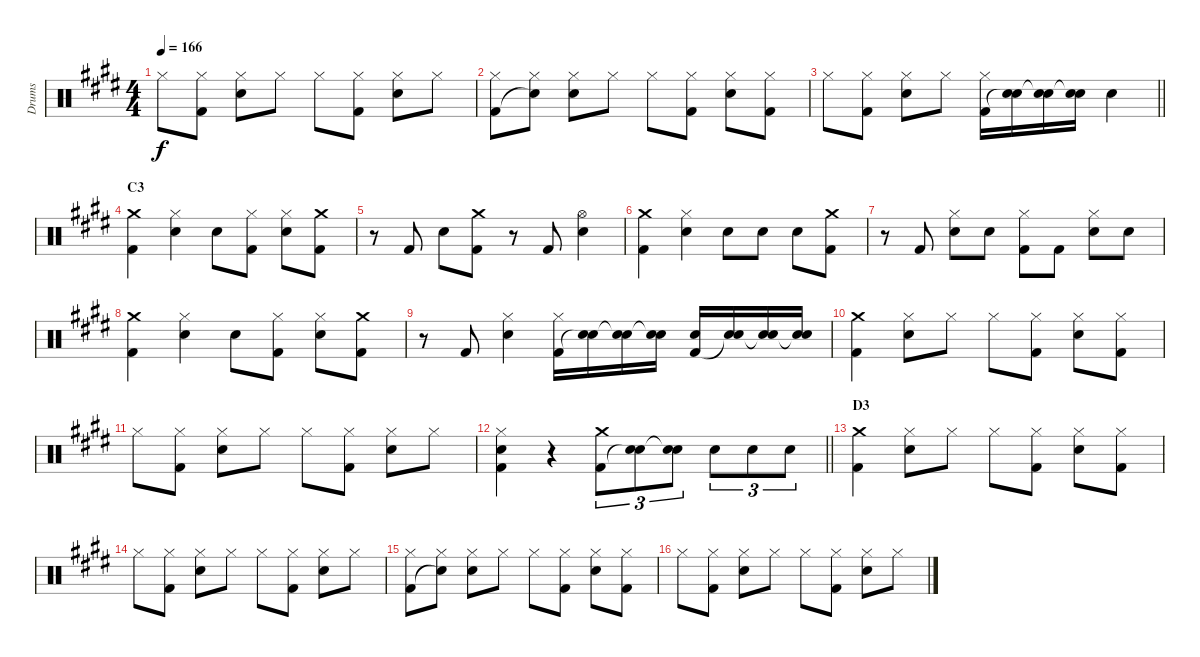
\track ("Drums" "Drums") {instrument percussion}
\staff {score}
\articulation defaults
\ts (4 4)
\tempo 166
\clef neutral
\ks e "Hi-Hat (closed)".8{dy f}
("Hi-Hat (closed)" "Kick (hit) 2").8 ("Hi-Hat (closed)" "Snare (hit) 2").8 "Hi-Hat (closed)".8 "Hi-Hat (closed)".8 ("Hi-Hat (closed)" "Kick (hit) 2").8 ("Hi-Hat (closed)" "Snare (hit) 2").8 "Hi-Hat (closed)".8 |
("Hi-Hat (closed)" "Kick (hit) 2").8 ("Hi-Hat (closed)" "Snare (hit)"{t}).8 ("Hi-Hat (closed)" "Snare (hit) 2").8 "Hi-Hat (closed)".8 "Hi-Hat (closed)".8 ("Hi-Hat (closed)" "Kick (hit) 2").8 ("Hi-Hat (closed)" "Snare (hit) 2").8 ("Hi-Hat (closed)" "Kick (hit) 2").8 |
\barLineRight lightlight "Hi-Hat (closed)".8
("Hi-Hat (closed)" "Kick (hit) 2").8 ("Hi-Hat (closed)" "Snare (hit) 2").8 "Hi-Hat (closed)".8 ("Hi-Hat (closed)" "Kick (hit) 2").16 ("Snare (hit) 2" "Snare (hit)"{t}).16 ("Snare (hit) 2" "Snare (hit)"{t}).16 ("Snare (hit) 2" "Snare (hit)"{t}).16 "Snare (hit) 2".4 |
\section ("" "C3")
("Crash medium (hit)" "Kick (hit) 2").4 ("Hi-Hat (closed)" "Snare (hit) 2").4 "Snare (hit) 2".8 ("Hi-Hat (closed)" "Kick (hit) 2").8 ("Hi-Hat (closed)" "Snare (hit) 2").8 ("Crash medium (hit)" "Kick (hit) 2").8 |
r.8 "Kick (hit) 2".8 "Snare (hit) 2".8 ("Crash medium (hit)" "Kick (hit) 2").8 r.8 "Kick (hit) 2".8 ("Hi-Hat (open)" "Snare (hit) 2").4 |
("Crash medium (hit)" "Kick (hit) 2").4 ("Hi-Hat (closed)" "Snare (hit) 2").4 "Snare (hit) 2".8 "Snare (hit) 2".8 "Snare (hit) 2".8 ("Crash medium (hit)" "Kick (hit) 2").8 |
r.8 "Kick (hit) 2".8 ("Hi-Hat (closed)" "Snare (hit) 2").8 "Snare (hit) 2".8 ("Hi-Hat (closed)" "Kick (hit) 2").8 "Kick (hit) 2".8 ("Hi-Hat (closed)" "Snare (hit) 2").8 "Snare (hit) 2".8 |
("Crash medium (hit)" "Kick (hit) 2").4 ("Hi-Hat (closed)" "Snare (hit) 2").4 "Snare (hit) 2".8 ("Hi-Hat (closed)" "Kick (hit) 2").8 ("Hi-Hat (closed)" "Snare (hit) 2").8 ("Crash medium (hit)" "Kick (hit) 2").8 |
r.8 "Kick (hit) 2".8 ("Hi-Hat (closed)" "Snare (hit) 2").4 ("Hi-Hat (closed)" "Kick (hit) 2").16 ("Snare (hit) 2" "Snare (hit)"{t}).16 ("Snare (hit) 2" "Snare (hit)"{t}).16 ("Snare (hit) 2" "Snare (hit)"{t}).16 ("Snare (hit) 2" "Kick (hit) 2").16 ("Snare (hit) 2" "Snare (hit)"{t}).16 ("Snare (hit) 2" "Snare (hit)"{t}).16 ("Snare (hit) 2" "Snare (hit)"{t}).16 |
("Crash medium (hit)" "Kick (hit) 2").4 ("Hi-Hat (closed)" "Snare (hit) 2").8 "Hi-Hat (closed)".8 "Hi-Hat (closed)".8 ("Hi-Hat (closed)" "Kick (hit) 2").8 ("Hi-Hat (closed)" "Snare (hit) 2").8 ("Hi-Hat (closed)" "Kick (hit) 2").8 |
"Hi-Hat (closed)".8 ("Hi-Hat (closed)" "Kick (hit) 2").8 ("Hi-Hat (closed)" "Snare (hit) 2").8 "Hi-Hat (closed)".8 "Hi-Hat (closed)".8 ("Hi-Hat (closed)" "Kick (hit) 2").8 ("Hi-Hat (closed)" "Snare (hit) 2").8 "Hi-Hat (closed)".8 |
\barLineRight lightlight
("Hi-Hat (closed)" "Snare (hit) 2" "Kick (hit) 2").4 r.4 ("Crash medium (hit)" "Kick (hit) 2").8{tu (3 2)} ("Snare (hit) 2" "Snare (hit)"{t}).8{tu (3 2)} ("Snare (hit) 2" "Snare (hit)"{t}).8{tu (3 2)} "Snare (hit) 2".8{tu (3 2)} "Snare (hit) 2".8{tu (3 2)} "Snare (hit) 2".8{tu (3 2)} |
\section ("" "D3")
("Crash medium (hit)" "Kick (hit) 2").4 ("Hi-Hat (closed)" "Snare (hit) 2").8 "Hi-Hat (closed)".8 "Hi-Hat (closed)".8 ("Hi-Hat (closed)" "Kick (hit) 2").8 ("Hi-Hat (closed)" "Snare (hit) 2").8 ("Hi-Hat (closed)" "Kick (hit) 2").8 |
"Hi-Hat (closed)".8 ("Hi-Hat (closed)" "Kick (hit) 2").8 ("Hi-Hat (closed)" "Snare (hit) 2").8 "Hi-Hat (closed)".8 "Hi-Hat (closed)".8 ("Hi-Hat (closed)" "Kick (hit) 2").8 ("Hi-Hat (closed)" "Snare (hit) 2").8 "Hi-Hat (closed)".8 |
("Hi-Hat (closed)" "Kick (hit) 2").8 ("Hi-Hat (closed)" "Snare (hit)"{t}).8 ("Hi-Hat (closed)" "Snare (hit) 2").8 "Hi-Hat (closed)".8 "Hi-Hat (closed)".8 ("Hi-Hat (closed)" "Kick (hit) 2").8 ("Hi-Hat (closed)" "Snare (hit) 2").8 ("Hi-Hat (closed)" "Kick (hit) 2").8 |
"Hi-Hat (closed)".8 ("Hi-Hat (closed)" "Kick (hit) 2").8 ("Hi-Hat (closed)" "Snare (hit) 2").8 "Hi-Hat (closed)".8 "Hi-Hat (closed)".8 ("Hi-Hat (closed)" "Kick (hit) 2").8 ("Hi-Hat (closed)" "Snare (hit) 2").8 "Hi-Hat (closed)".8
